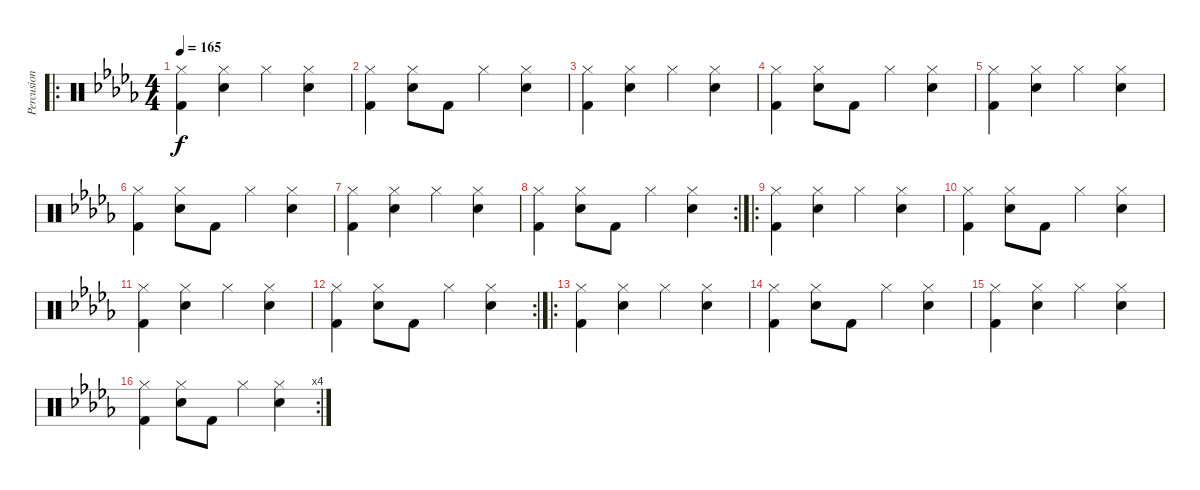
\track ("Percusion (percussions)" "Percusion ") {instrument percussion}
\staff {score}
\articulation defaults
\ro
\ts (4 4)
\tempo 165
\clef neutral
\ks db
("Hi-Hat (closed)" "Kick (hit) 2").4{dy f} ("Hi-Hat (closed)" "Snare (hit) 2").4 "Hi-Hat (closed)".4 ("Hi-Hat (closed)" "Snare (hit) 2").4 |
("Hi-Hat (closed)" "Kick (hit) 2").4 ("Hi-Hat (closed)" "Snare (hit) 2").8 "Kick (hit) 2".8 "Hi-Hat (closed)".4 ("Hi-Hat (closed)" "Snare (hit) 2").4 |
("Hi-Hat (closed)" "Kick (hit) 2").4 ("Hi-Hat (closed)" "Snare (hit) 2").4 "Hi-Hat (closed)".4 ("Hi-Hat (closed)" "Snare (hit) 2").4 |
("Hi-Hat (closed)" "Kick (hit) 2").4 ("Hi-Hat (closed)" "Snare (hit) 2").8 "Kick (hit) 2".8 "Hi-Hat (closed)".4 ("Hi-Hat (closed)" "Snare (hit) 2").4 |
("Hi-Hat (closed)" "Kick (hit) 2").4 ("Hi-Hat (closed)" "Snare (hit) 2").4 "Hi-Hat (closed)".4 ("Hi-Hat (closed)" "Snare (hit) 2").4 |
("Hi-Hat (closed)" "Kick (hit) 2").4 ("Hi-Hat (closed)" "Snare (hit) 2").8 "Kick (hit) 2".8 "Hi-Hat (closed)".4 ("Hi-Hat (closed)" "Snare (hit) 2").4 |
("Hi-Hat (closed)" "Kick (hit) 2").4 ("Hi-Hat (closed)" "Snare (hit) 2").4 "Hi-Hat (closed)".4 ("Hi-Hat (closed)" "Snare (hit) 2").4 |
\rc 2
("Hi-Hat (closed)" "Kick (hit) 2").4 ("Hi-Hat (closed)" "Snare (hit) 2").8 "Kick (hit) 2".8 "Hi-Hat (closed)".4 ("Hi-Hat (closed)" "Snare (hit) 2").4 |
\ro
("Hi-Hat (closed)" "Kick (hit) 2").4 ("Hi-Hat (closed)" "Snare (hit) 2").4 "Hi-Hat (closed)".4 ("Hi-Hat (closed)" "Snare (hit) 2").4 |
("Hi-Hat (closed)" "Kick (hit) 2").4 ("Hi-Hat (closed)" "Snare (hit) 2").8 "Kick (hit) 2".8 "Hi-Hat (closed)".4 ("Hi-Hat (closed)" "Snare (hit) 2").4 |
("Hi-Hat (closed)" "Kick (hit) 2").4 ("Hi-Hat (closed)" "Snare (hit) 2").4 "Hi-Hat (closed)".4 ("Hi-Hat (closed)" "Snare (hit) 2").4 |
\rc 2
("Hi-Hat (closed)" "Kick (hit) 2").4 ("Hi-Hat (closed)" "Snare (hit) 2").8 "Kick (hit) 2".8 "Hi-Hat (closed)".4 ("Hi-Hat (closed)" "Snare (hit) 2").4 |
\ro
("Hi-Hat (closed)" "Kick (hit) 2").4 ("Hi-Hat (closed)" "Snare (hit) 2").4 "Hi-Hat (closed)".4 ("Hi-Hat (closed)" "Snare (hit) 2").4 |
("Hi-Hat (closed)" "Kick (hit) 2").4 ("Hi-Hat (closed)" "Snare (hit) 2").8 "Kick (hit) 2".8 "Hi-Hat (closed)".4 ("Hi-Hat (closed)" "Snare (hit) 2").4 |
("Hi-Hat (closed)" "Kick (hit) 2").4 ("Hi-Hat (closed)" "Snare (hit) 2").4 "Hi-Hat (closed)".4 ("Hi-Hat (closed)" "Snare (hit) 2").4 |
\rc 4
("Hi-Hat (closed)" "Kick (hit) 2").4 ("Hi-Hat (closed)" "Snare (hit) 2").8 "Kick (hit) 2".8 "Hi-Hat (closed)".4 ("Hi-Hat (closed)" "Snare (hit) 2").4
